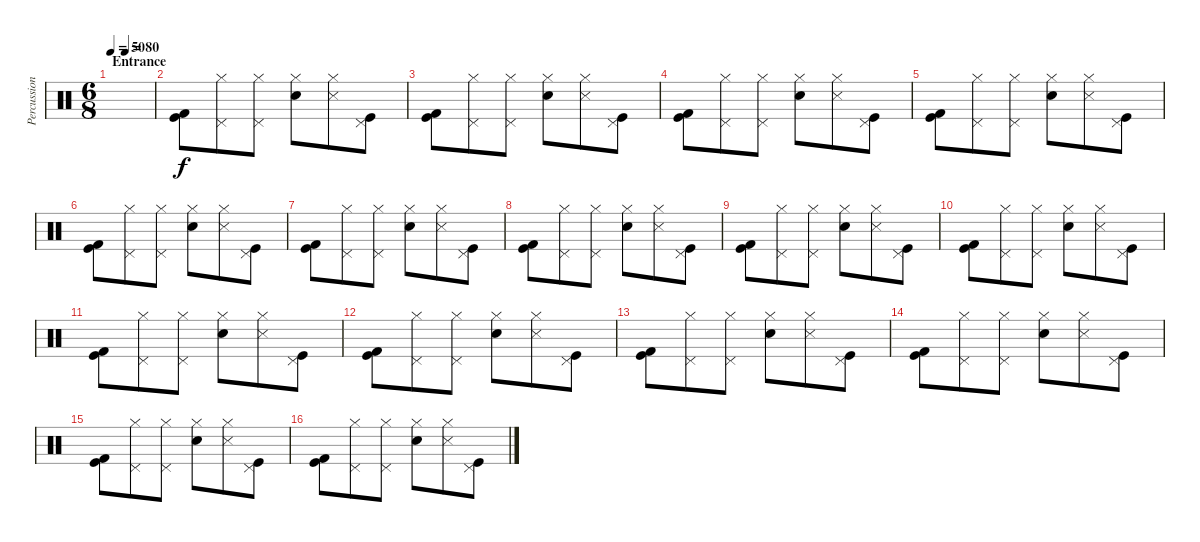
\track ("Percussion" "Percussion") {instrument percussion}
\staff {score}
\articulation defaults
\ts (6 8)
\section ("" "Entrance")
\tempo 50
\tempo (80 0.3333333333333333)
\clef neutral
\ks c
|
("Kick (hit)" "Kick (hit) 2").8 ("Hi-Hat (closed)" "Pedal Hi-Hat (hit)").8 ("Hi-Hat (closed)" "Pedal Hi-Hat (hit)").8 ("Hi-Hat (closed)" "Snare (hit) 2").8 ("Hi-Hat (closed)" "Snare (side stick) 3").8 ("Kick (hit)" "Pedal Hi-Hat (hit)").8 |
("Kick (hit)" "Kick (hit) 2").8 ("Hi-Hat (closed)" "Pedal Hi-Hat (hit)").8 ("Hi-Hat (closed)" "Pedal Hi-Hat (hit)").8 ("Hi-Hat (closed)" "Snare (hit) 2").8 ("Hi-Hat (closed)" "Snare (side stick) 3").8 ("Kick (hit)" "Pedal Hi-Hat (hit)").8 |
("Kick (hit)" "Kick (hit) 2").8 ("Hi-Hat (closed)" "Pedal Hi-Hat (hit)").8 ("Hi-Hat (closed)" "Pedal Hi-Hat (hit)").8 ("Hi-Hat (closed)" "Snare (hit) 2").8 ("Hi-Hat (closed)" "Snare (side stick) 3").8 ("Kick (hit)" "Pedal Hi-Hat (hit)").8 |
("Kick (hit)" "Kick (hit) 2").8 ("Hi-Hat (closed)" "Pedal Hi-Hat (hit)").8 ("Hi-Hat (closed)" "Pedal Hi-Hat (hit)").8 ("Hi-Hat (closed)" "Snare (hit) 2").8 ("Hi-Hat (closed)" "Snare (side stick) 3").8 ("Kick (hit)" "Pedal Hi-Hat (hit)").8 |
("Kick (hit)" "Kick (hit) 2").8 ("Hi-Hat (closed)" "Pedal Hi-Hat (hit)").8 ("Hi-Hat (closed)" "Pedal Hi-Hat (hit)").8 ("Hi-Hat (closed)" "Snare (hit) 2").8 ("Hi-Hat (closed)" "Snare (side stick) 3").8 ("Kick (hit)" "Pedal Hi-Hat (hit)").8 |
("Kick (hit)" "Kick (hit) 2").8 ("Hi-Hat (closed)" "Pedal Hi-Hat (hit)").8 ("Hi-Hat (closed)" "Pedal Hi-Hat (hit)").8 ("Hi-Hat (closed)" "Snare (hit) 2").8 ("Hi-Hat (closed)" "Snare (side stick) 3").8 ("Kick (hit)" "Pedal Hi-Hat (hit)").8 |
("Kick (hit)" "Kick (hit) 2").8 ("Hi-Hat (closed)" "Pedal Hi-Hat (hit)").8 ("Hi-Hat (closed)" "Pedal Hi-Hat (hit)").8 ("Hi-Hat (closed)" "Snare (hit) 2").8 ("Hi-Hat (closed)" "Snare (side stick) 3").8 ("Kick (hit)" "Pedal Hi-Hat (hit)").8 |
("Kick (hit)" "Kick (hit) 2").8 ("Hi-Hat (closed)" "Pedal Hi-Hat (hit)").8 ("Hi-Hat (closed)" "Pedal Hi-Hat (hit)").8 ("Hi-Hat (closed)" "Snare (hit) 2").8 ("Hi-Hat (closed)" "Snare (side stick) 3").8 ("Kick (hit)" "Pedal Hi-Hat (hit)").8 |
("Kick (hit)" "Kick (hit) 2").8 ("Hi-Hat (closed)" "Pedal Hi-Hat (hit)").8 ("Hi-Hat (closed)" "Pedal Hi-Hat (hit)").8 ("Hi-Hat (closed)" "Snare (hit) 2").8 ("Hi-Hat (closed)" "Snare (side stick) 3").8 ("Kick (hit)" "Pedal Hi-Hat (hit)").8 |
("Kick (hit)" "Kick (hit) 2").8 ("Hi-Hat (closed)" "Pedal Hi-Hat (hit)").8 ("Hi-Hat (closed)" "Pedal Hi-Hat (hit)").8 ("Hi-Hat (closed)" "Snare (hit) 2").8 ("Hi-Hat (closed)" "Snare (side stick) 3").8 ("Kick (hit)" "Pedal Hi-Hat (hit)").8 |
("Kick (hit)" "Kick (hit) 2").8 ("Hi-Hat (closed)" "Pedal Hi-Hat (hit)").8 ("Hi-Hat (closed)" "Pedal Hi-Hat (hit)").8 ("Hi-Hat (closed)" "Snare (hit) 2").8 ("Hi-Hat (closed)" "Snare (side stick) 3").8 ("Kick (hit)" "Pedal Hi-Hat (hit)").8 |
("Kick (hit)" "Kick (hit) 2").8 ("Hi-Hat (closed)" "Pedal Hi-Hat (hit)").8 ("Hi-Hat (closed)" "Pedal Hi-Hat (hit)").8 ("Hi-Hat (closed)" "Snare (hit) 2").8 ("Hi-Hat (closed)" "Snare (side stick) 3").8 ("Kick (hit)" "Pedal Hi-Hat (hit)").8 |
("Kick (hit)" "Kick (hit) 2").8 ("Hi-Hat (closed)" "Pedal Hi-Hat (hit)").8 ("Hi-Hat (closed)" "Pedal Hi-Hat (hit)").8 ("Hi-Hat (closed)" "Snare (hit) 2").8 ("Hi-Hat (closed)" "Snare (side stick) 3").8 ("Kick (hit)" "Pedal Hi-Hat (hit)").8 |
("Kick (hit)" "Kick (hit) 2").8 ("Hi-Hat (closed)" "Pedal Hi-Hat (hit)").8 ("Hi-Hat (closed)" "Pedal Hi-Hat (hit)").8 ("Hi-Hat (closed)" "Snare (hit) 2").8 ("Hi-Hat (closed)" "Snare (side stick) 3").8 ("Kick (hit)" "Pedal Hi-Hat (hit)").8 |
("Kick (hit)" "Kick (hit) 2").8 ("Hi-Hat (closed)" "Pedal Hi-Hat (hit)").8 ("Hi-Hat (closed)" "Pedal Hi-Hat (hit)").8 ("Hi-Hat (closed)" "Snare (hit) 2").8 ("Hi-Hat (closed)" "Snare (side stick) 3").8 ("Kick (hit)" "Pedal Hi-Hat (hit)").8
